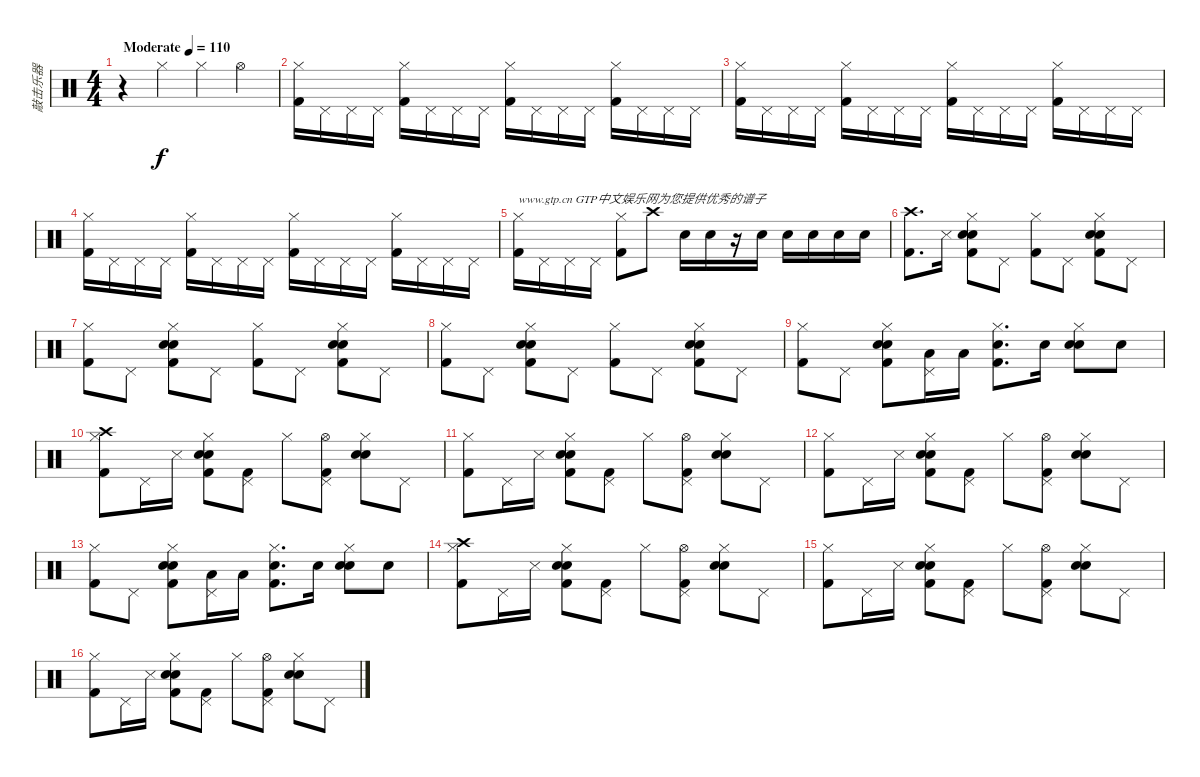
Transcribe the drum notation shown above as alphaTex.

\track ("敲击乐器" "敲击乐器") {instrument percussion}
\staff {score}
\articulation defaults
\ts (4 4)
\tempo (110 "Moderate")
\clef neutral
\ks c
r.4{dy f} "Hi-Hat (closed)".4 "Hi-Hat (closed)".4 "Hi-Hat (open)".4 |
("Hi-Hat (closed)" "Kick (hit) 2").16 "Pedal Hi-Hat (hit)".16 "Pedal Hi-Hat (hit)".16 "Pedal Hi-Hat (hit)".16 ("Hi-Hat (closed)" "Kick (hit) 2").16 "Pedal Hi-Hat (hit)".16 "Pedal Hi-Hat (hit)".16 "Pedal Hi-Hat (hit)".16 ("Hi-Hat (closed)" "Kick (hit) 2").16 "Pedal Hi-Hat (hit)".16 "Pedal Hi-Hat (hit)".16 "Pedal Hi-Hat (hit)".16 ("Hi-Hat (closed)" "Kick (hit) 2").16 "Pedal Hi-Hat (hit)".16 "Pedal Hi-Hat (hit)".16 "Pedal Hi-Hat (hit)".16 |
("Hi-Hat (closed)" "Kick (hit) 2").16 "Pedal Hi-Hat (hit)".16 "Pedal Hi-Hat (hit)".16 "Pedal Hi-Hat (hit)".16 ("Hi-Hat (closed)" "Kick (hit) 2").16 "Pedal Hi-Hat (hit)".16 "Pedal Hi-Hat (hit)".16 "Pedal Hi-Hat (hit)".16 ("Hi-Hat (closed)" "Kick (hit) 2").16 "Pedal Hi-Hat (hit)".16 "Pedal Hi-Hat (hit)".16 "Pedal Hi-Hat (hit)".16 ("Hi-Hat (closed)" "Kick (hit) 2").16 "Pedal Hi-Hat (hit)".16 "Pedal Hi-Hat (hit)".16 "Pedal Hi-Hat (hit)".16 |
("Hi-Hat (closed)" "Kick (hit) 2").16 "Pedal Hi-Hat (hit)".16 "Pedal Hi-Hat (hit)".16 "Pedal Hi-Hat (hit)".16 ("Hi-Hat (closed)" "Kick (hit) 2").16 "Pedal Hi-Hat (hit)".16 "Pedal Hi-Hat (hit)".16 "Pedal Hi-Hat (hit)".16 ("Hi-Hat (closed)" "Kick (hit) 2").16 "Pedal Hi-Hat (hit)".16 "Pedal Hi-Hat (hit)".16 "Pedal Hi-Hat (hit)".16 ("Hi-Hat (closed)" "Kick (hit) 2").16 "Pedal Hi-Hat (hit)".16 "Pedal Hi-Hat (hit)".16 "Pedal Hi-Hat (hit)".16 |
("Hi-Hat (closed)" "Kick (hit) 2").16{txt "www.gtp.cn GTP中文娱乐网为您提供优秀的谱子"} "Pedal Hi-Hat (hit)".16 "Pedal Hi-Hat (hit)".16 "Pedal Hi-Hat (hit)".16 ("Hi-Hat (closed)" "Kick (hit) 2").8 "Crash high (hit)".8 "Snare (hit) 2".16 "Snare (hit) 2".16 r.16 "Snare (hit) 2".16 "Electric Snare (hit)".16 "Electric Snare (hit)".16 "Electric Snare (hit)".16 "Electric Snare (hit)".16 |
("Crash high (hit)" "Kick (hit) 2").8{d} "Snare (side stick) 3".16 ("Hand Clap (hit)" "Electric Snare (hit)" "Hi-Hat (closed)" "Kick (hit) 2").8 "Pedal Hi-Hat (hit)".8 ("Hi-Hat (closed)" "Kick (hit) 2").8 "Pedal Hi-Hat (hit)".8 ("Hand Clap (hit)" "Electric Snare (hit)" "Hi-Hat (closed)" "Kick (hit) 2").8 "Pedal Hi-Hat (hit)".8 |
("Hi-Hat (closed)" "Kick (hit) 2").8 "Pedal Hi-Hat (hit)".8 ("Hand Clap (hit)" "Electric Snare (hit)" "Hi-Hat (closed)" "Kick (hit) 2").8 "Pedal Hi-Hat (hit)".8 ("Hi-Hat (closed)" "Kick (hit) 2").8 "Pedal Hi-Hat (hit)".8 ("Hand Clap (hit)" "Electric Snare (hit)" "Hi-Hat (closed)" "Kick (hit) 2").8 "Pedal Hi-Hat (hit)".8 |
("Hi-Hat (closed)" "Kick (hit) 2").8 "Pedal Hi-Hat (hit)".8 ("Hand Clap (hit)" "Electric Snare (hit)" "Hi-Hat (closed)" "Kick (hit) 2").8 "Pedal Hi-Hat (hit)".8 ("Hi-Hat (closed)" "Kick (hit) 2").8 "Pedal Hi-Hat (hit)".8 ("Hand Clap (hit)" "Electric Snare (hit)" "Hi-Hat (closed)" "Kick (hit) 2").8 "Pedal Hi-Hat (hit)".8 |
("Hi-Hat (closed)" "Kick (hit) 2").8 "Pedal Hi-Hat (hit)".8 ("Hand Clap (hit)" "Electric Snare (hit)" "Hi-Hat (closed)" "Kick (hit) 2").8 ("Pedal Hi-Hat (hit)" "Low Tom (hit)").16 "Low Tom (hit)".16 ("Electric Snare (hit)" "Hi-Hat (closed)" "Kick (hit) 2").8{d} "Snare (hit) 2".16 ("Hand Clap (hit)" "Electric Snare (hit)" "Hi-Hat (closed)").8 "Snare (hit) 2".8 |
("Crash high (hit)" "Hi-Hat (closed)" "Kick (hit) 2").8 "Pedal Hi-Hat (hit)".16 "Snare (side stick) 3".16 ("Hand Clap (hit)" "Electric Snare (hit)" "Hi-Hat (closed)" "Kick (hit) 2").8 ("Pedal Hi-Hat (hit)" "Kick (hit) 2").8 "Hi-Hat (closed)".8 ("Hi-Hat (open)" "Pedal Hi-Hat (hit)" "Kick (hit) 2").8 ("Hand Clap (hit)" "Electric Snare (hit)" "Hi-Hat (closed)").8 "Pedal Hi-Hat (hit)".8 |
("Hi-Hat (closed)" "Kick (hit) 2").8 "Pedal Hi-Hat (hit)".16 "Snare (side stick) 3".16 ("Hand Clap (hit)" "Electric Snare (hit)" "Hi-Hat (closed)" "Kick (hit) 2").8 ("Pedal Hi-Hat (hit)" "Kick (hit) 2").8 "Hi-Hat (closed)".8 ("Hi-Hat (open)" "Pedal Hi-Hat (hit)" "Kick (hit) 2").8 ("Hand Clap (hit)" "Electric Snare (hit)" "Hi-Hat (closed)").8 "Pedal Hi-Hat (hit)".8 |
("Hi-Hat (closed)" "Kick (hit) 2").8 "Pedal Hi-Hat (hit)".16 "Snare (side stick) 3".16 ("Hand Clap (hit)" "Electric Snare (hit)" "Hi-Hat (closed)" "Kick (hit) 2").8 ("Pedal Hi-Hat (hit)" "Kick (hit) 2").8 "Hi-Hat (closed)".8 ("Hi-Hat (open)" "Pedal Hi-Hat (hit)" "Kick (hit) 2").8 ("Hand Clap (hit)" "Electric Snare (hit)" "Hi-Hat (closed)").8 "Pedal Hi-Hat (hit)".8 |
("Hi-Hat (closed)" "Kick (hit) 2").8 "Pedal Hi-Hat (hit)".8 ("Hand Clap (hit)" "Electric Snare (hit)" "Hi-Hat (closed)" "Kick (hit) 2").8 ("Pedal Hi-Hat (hit)" "Low Tom (hit)").16 "Low Tom (hit)".16 ("Electric Snare (hit)" "Hi-Hat (closed)" "Kick (hit) 2").8{d} "Snare (hit) 2".16 ("Hand Clap (hit)" "Electric Snare (hit)" "Hi-Hat (closed)").8 "Snare (hit) 2".8 |
("Crash high (hit)" "Hi-Hat (closed)" "Kick (hit) 2").8 "Pedal Hi-Hat (hit)".16 "Snare (side stick) 3".16 ("Hand Clap (hit)" "Electric Snare (hit)" "Hi-Hat (closed)" "Kick (hit) 2").8 ("Pedal Hi-Hat (hit)" "Kick (hit) 2").8 "Hi-Hat (closed)".8 ("Hi-Hat (open)" "Pedal Hi-Hat (hit)" "Kick (hit) 2").8 ("Hand Clap (hit)" "Electric Snare (hit)" "Hi-Hat (closed)").8 "Pedal Hi-Hat (hit)".8 |
("Hi-Hat (closed)" "Kick (hit) 2").8 "Pedal Hi-Hat (hit)".16 "Snare (side stick) 3".16 ("Hand Clap (hit)" "Electric Snare (hit)" "Hi-Hat (closed)" "Kick (hit) 2").8 ("Pedal Hi-Hat (hit)" "Kick (hit) 2").8 "Hi-Hat (closed)".8 ("Hi-Hat (open)" "Pedal Hi-Hat (hit)" "Kick (hit) 2").8 ("Hand Clap (hit)" "Electric Snare (hit)" "Hi-Hat (closed)").8 "Pedal Hi-Hat (hit)".8 |
("Hi-Hat (closed)" "Kick (hit) 2").8 "Pedal Hi-Hat (hit)".16 "Snare (side stick) 3".16 ("Hand Clap (hit)" "Electric Snare (hit)" "Hi-Hat (closed)" "Kick (hit) 2").8 ("Pedal Hi-Hat (hit)" "Kick (hit) 2").8 "Hi-Hat (closed)".8 ("Hi-Hat (open)" "Pedal Hi-Hat (hit)" "Kick (hit) 2").8 ("Hand Clap (hit)" "Electric Snare (hit)" "Hi-Hat (closed)").8 "Pedal Hi-Hat (hit)".8
